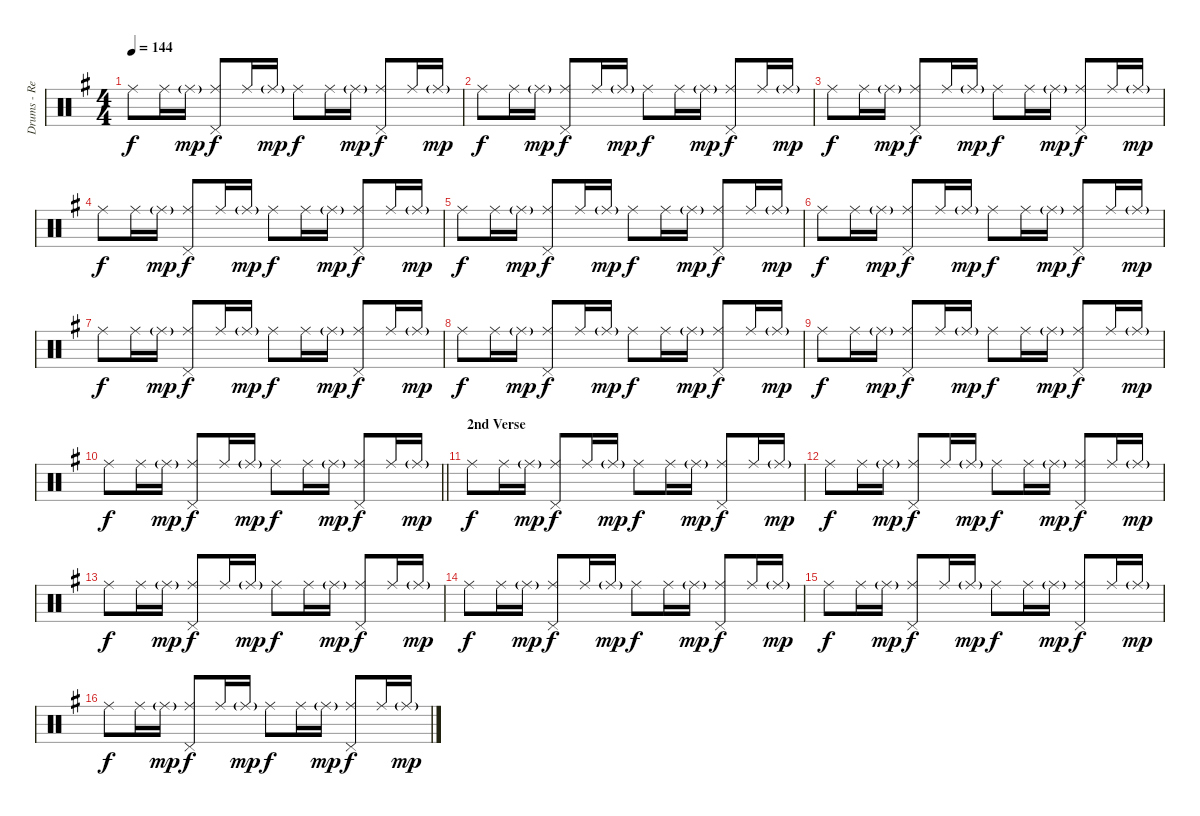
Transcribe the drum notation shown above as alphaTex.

\track ("Drums - Reni" "Drums - Re") {instrument percussion}
\staff {score}
\articulation defaults
\ts (4 4)
\tempo 144
\clef neutral
\ks g "Ride (middle)".8{dy f} "Ride (middle)".16 "Ride (middle)"{g}.16{dy mp}
("Ride (middle)" "Pedal Hi-Hat (hit)").8{dy f} "Ride (middle)".16 "Ride (middle)"{g}.16{dy mp} "Ride (middle)".8{dy f} "Ride (middle)".16 "Ride (middle)"{g}.16{dy mp} ("Ride (middle)" "Pedal Hi-Hat (hit)").8{dy f} "Ride (middle)".16 "Ride (middle)"{g}.16{dy mp} |
"Ride (middle)".8{dy f} "Ride (middle)".16 "Ride (middle)"{g}.16{dy mp} ("Ride (middle)" "Pedal Hi-Hat (hit)").8{dy f} "Ride (middle)".16 "Ride (middle)"{g}.16{dy mp} "Ride (middle)".8{dy f} "Ride (middle)".16 "Ride (middle)"{g}.16{dy mp} ("Ride (middle)" "Pedal Hi-Hat (hit)").8{dy f} "Ride (middle)".16 "Ride (middle)"{g}.16{dy mp} |
"Ride (middle)".8{dy f} "Ride (middle)".16 "Ride (middle)"{g}.16{dy mp} ("Ride (middle)" "Pedal Hi-Hat (hit)").8{dy f} "Ride (middle)".16 "Ride (middle)"{g}.16{dy mp} "Ride (middle)".8{dy f} "Ride (middle)".16 "Ride (middle)"{g}.16{dy mp} ("Ride (middle)" "Pedal Hi-Hat (hit)").8{dy f} "Ride (middle)".16 "Ride (middle)"{g}.16{dy mp} |
"Ride (middle)".8{dy f} "Ride (middle)".16 "Ride (middle)"{g}.16{dy mp} ("Ride (middle)" "Pedal Hi-Hat (hit)").8{dy f} "Ride (middle)".16 "Ride (middle)"{g}.16{dy mp} "Ride (middle)".8{dy f} "Ride (middle)".16 "Ride (middle)"{g}.16{dy mp} ("Ride (middle)" "Pedal Hi-Hat (hit)").8{dy f} "Ride (middle)".16 "Ride (middle)"{g}.16{dy mp} |
"Ride (middle)".8{dy f} "Ride (middle)".16 "Ride (middle)"{g}.16{dy mp} ("Ride (middle)" "Pedal Hi-Hat (hit)").8{dy f} "Ride (middle)".16 "Ride (middle)"{g}.16{dy mp} "Ride (middle)".8{dy f} "Ride (middle)".16 "Ride (middle)"{g}.16{dy mp} ("Ride (middle)" "Pedal Hi-Hat (hit)").8{dy f} "Ride (middle)".16 "Ride (middle)"{g}.16{dy mp} |
"Ride (middle)".8{dy f} "Ride (middle)".16 "Ride (middle)"{g}.16{dy mp} ("Ride (middle)" "Pedal Hi-Hat (hit)").8{dy f} "Ride (middle)".16 "Ride (middle)"{g}.16{dy mp} "Ride (middle)".8{dy f} "Ride (middle)".16 "Ride (middle)"{g}.16{dy mp} ("Ride (middle)" "Pedal Hi-Hat (hit)").8{dy f} "Ride (middle)".16 "Ride (middle)"{g}.16{dy mp} |
"Ride (middle)".8{dy f} "Ride (middle)".16 "Ride (middle)"{g}.16{dy mp} ("Ride (middle)" "Pedal Hi-Hat (hit)").8{dy f} "Ride (middle)".16 "Ride (middle)"{g}.16{dy mp} "Ride (middle)".8{dy f} "Ride (middle)".16 "Ride (middle)"{g}.16{dy mp} ("Ride (middle)" "Pedal Hi-Hat (hit)").8{dy f} "Ride (middle)".16 "Ride (middle)"{g}.16{dy mp} |
"Ride (middle)".8{dy f} "Ride (middle)".16 "Ride (middle)"{g}.16{dy mp} ("Ride (middle)" "Pedal Hi-Hat (hit)").8{dy f} "Ride (middle)".16 "Ride (middle)"{g}.16{dy mp} "Ride (middle)".8{dy f} "Ride (middle)".16 "Ride (middle)"{g}.16{dy mp} ("Ride (middle)" "Pedal Hi-Hat (hit)").8{dy f} "Ride (middle)".16 "Ride (middle)"{g}.16{dy mp} |
"Ride (middle)".8{dy f} "Ride (middle)".16 "Ride (middle)"{g}.16{dy mp} ("Ride (middle)" "Pedal Hi-Hat (hit)").8{dy f} "Ride (middle)".16 "Ride (middle)"{g}.16{dy mp} "Ride (middle)".8{dy f} "Ride (middle)".16 "Ride (middle)"{g}.16{dy mp} ("Ride (middle)" "Pedal Hi-Hat (hit)").8{dy f} "Ride (middle)".16 "Ride (middle)"{g}.16{dy mp} |
\barLineRight lightlight "Ride (middle)".8{dy f} "Ride (middle)".16 "Ride (middle)"{g}.16{dy mp}
("Ride (middle)" "Pedal Hi-Hat (hit)").8{dy f} "Ride (middle)".16 "Ride (middle)"{g}.16{dy mp} "Ride (middle)".8{dy f} "Ride (middle)".16 "Ride (middle)"{g}.16{dy mp} ("Ride (middle)" "Pedal Hi-Hat (hit)").8{dy f} "Ride (middle)".16 "Ride (middle)"{g}.16{dy mp} |
\section ("" "2nd Verse")
"Ride (middle)".8{dy f} "Ride (middle)".16 "Ride (middle)"{g}.16{dy mp} ("Ride (middle)" "Pedal Hi-Hat (hit)").8{dy f} "Ride (middle)".16 "Ride (middle)"{g}.16{dy mp} "Ride (middle)".8{dy f} "Ride (middle)".16 "Ride (middle)"{g}.16{dy mp} ("Ride (middle)" "Pedal Hi-Hat (hit)").8{dy f} "Ride (middle)".16 "Ride (middle)"{g}.16{dy mp} |
"Ride (middle)".8{dy f} "Ride (middle)".16 "Ride (middle)"{g}.16{dy mp} ("Ride (middle)" "Pedal Hi-Hat (hit)").8{dy f} "Ride (middle)".16 "Ride (middle)"{g}.16{dy mp} "Ride (middle)".8{dy f} "Ride (middle)".16 "Ride (middle)"{g}.16{dy mp} ("Ride (middle)" "Pedal Hi-Hat (hit)").8{dy f} "Ride (middle)".16 "Ride (middle)"{g}.16{dy mp} |
"Ride (middle)".8{dy f} "Ride (middle)".16 "Ride (middle)"{g}.16{dy mp} ("Ride (middle)" "Pedal Hi-Hat (hit)").8{dy f} "Ride (middle)".16 "Ride (middle)"{g}.16{dy mp} "Ride (middle)".8{dy f} "Ride (middle)".16 "Ride (middle)"{g}.16{dy mp} ("Ride (middle)" "Pedal Hi-Hat (hit)").8{dy f} "Ride (middle)".16 "Ride (middle)"{g}.16{dy mp} |
"Ride (middle)".8{dy f} "Ride (middle)".16 "Ride (middle)"{g}.16{dy mp} ("Ride (middle)" "Pedal Hi-Hat (hit)").8{dy f} "Ride (middle)".16 "Ride (middle)"{g}.16{dy mp} "Ride (middle)".8{dy f} "Ride (middle)".16 "Ride (middle)"{g}.16{dy mp} ("Ride (middle)" "Pedal Hi-Hat (hit)").8{dy f} "Ride (middle)".16 "Ride (middle)"{g}.16{dy mp} |
"Ride (middle)".8{dy f} "Ride (middle)".16 "Ride (middle)"{g}.16{dy mp} ("Ride (middle)" "Pedal Hi-Hat (hit)").8{dy f} "Ride (middle)".16 "Ride (middle)"{g}.16{dy mp} "Ride (middle)".8{dy f} "Ride (middle)".16 "Ride (middle)"{g}.16{dy mp} ("Ride (middle)" "Pedal Hi-Hat (hit)").8{dy f} "Ride (middle)".16 "Ride (middle)"{g}.16{dy mp} |
"Ride (middle)".8{dy f} "Ride (middle)".16 "Ride (middle)"{g}.16{dy mp} ("Ride (middle)" "Pedal Hi-Hat (hit)").8{dy f} "Ride (middle)".16 "Ride (middle)"{g}.16{dy mp} "Ride (middle)".8{dy f} "Ride (middle)".16 "Ride (middle)"{g}.16{dy mp} ("Ride (middle)" "Pedal Hi-Hat (hit)").8{dy f} "Ride (middle)".16 "Ride (middle)"{g}.16{dy mp}
